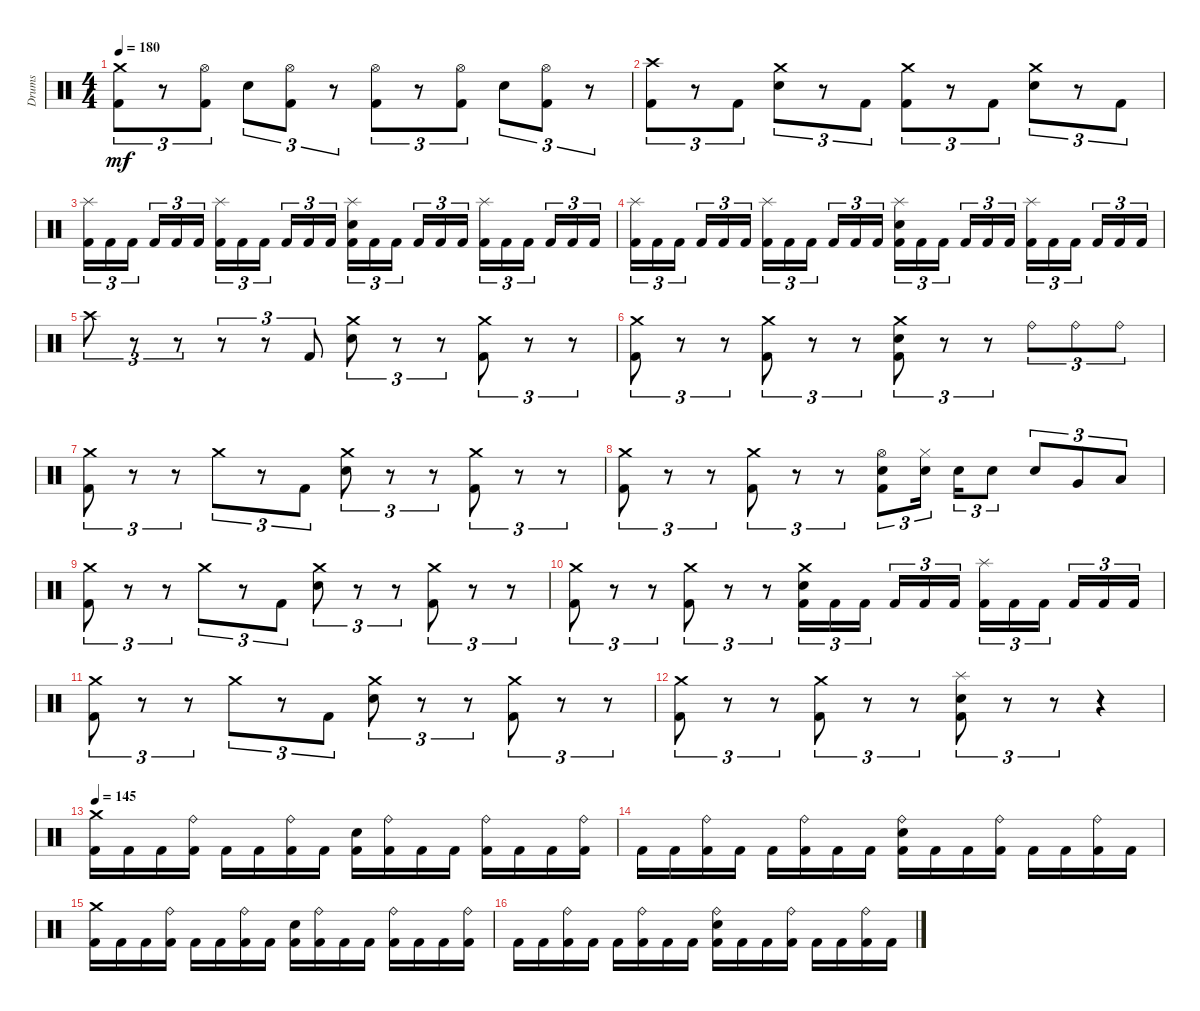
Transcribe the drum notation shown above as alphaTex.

\track ("Drums" "Drums") {instrument percussion}
\staff {score}
\articulation defaults
\ts (4 4)
\tempo 180
\clef neutral
\ks c
("Crash medium (hit)" "Kick (hit) 2").8{tu (3 2) dy mf} r.8{tu (3 2)} ("Hi-Hat (open)" "Kick (hit) 2").8{tu (3 2)} "Electric Snare (hit)".8{tu (3 2)} ("Hi-Hat (open)" "Kick (hit) 2").8{tu (3 2)} r.8{tu (3 2)} ("Hi-Hat (open)" "Kick (hit) 2").8{tu (3 2)} r.8{tu (3 2)} ("Hi-Hat (open)" "Kick (hit) 2").8{tu (3 2)} "Electric Snare (hit)".8{tu (3 2)} ("Hi-Hat (open)" "Kick (hit) 2").8{tu (3 2)} r.8{tu (3 2)} |
("Crash high (hit)" "Kick (hit) 2").8{tu (3 2)} r.8{tu (3 2)} "Kick (hit) 2".8{tu (3 2)} ("Crash medium (hit)" "Electric Snare (hit)").8{tu (3 2)} r.8{tu (3 2)} "Kick (hit) 2".8{tu (3 2)} ("Crash medium (hit)" "Kick (hit) 2").8{tu (3 2)} r.8{tu (3 2)} "Kick (hit) 2".8{tu (3 2)} ("Crash medium (hit)" "Electric Snare (hit)").8{tu (3 2)} r.8{tu (3 2)} "Kick (hit) 2".8{tu (3 2)} |
("Splash (hit)" "Kick (hit) 2").16{tu (3 2)} "Kick (hit) 2".16{tu (3 2)} "Kick (hit) 2".16{tu (3 2) beam splitsecondary} "Kick (hit) 2".16{tu (3 2)} "Kick (hit) 2".16{tu (3 2)} "Kick (hit) 2".16{tu (3 2)} ("Splash (hit)" "Kick (hit) 2").16{tu (3 2)} "Kick (hit) 2".16{tu (3 2)} "Kick (hit) 2".16{tu (3 2) beam splitsecondary} "Kick (hit) 2".16{tu (3 2)} "Kick (hit) 2".16{tu (3 2)} "Kick (hit) 2".16{tu (3 2)} ("Splash (hit)" "Electric Snare (hit)" "Kick (hit) 2").16{tu (3 2)} "Kick (hit) 2".16{tu (3 2)} "Kick (hit) 2".16{tu (3 2) beam splitsecondary} "Kick (hit) 2".16{tu (3 2)} "Kick (hit) 2".16{tu (3 2)} "Kick (hit) 2".16{tu (3 2)} ("Splash (hit)" "Kick (hit) 2").16{tu (3 2)} "Kick (hit) 2".16{tu (3 2)} "Kick (hit) 2".16{tu (3 2) beam splitsecondary} "Kick (hit) 2".16{tu (3 2)} "Kick (hit) 2".16{tu (3 2)} "Kick (hit) 2".16{tu (3 2)} |
("Splash (hit)" "Kick (hit) 2").16{tu (3 2)} "Kick (hit) 2".16{tu (3 2)} "Kick (hit) 2".16{tu (3 2) beam splitsecondary} "Kick (hit) 2".16{tu (3 2)} "Kick (hit) 2".16{tu (3 2)} "Kick (hit) 2".16{tu (3 2)} ("Splash (hit)" "Kick (hit) 2").16{tu (3 2)} "Kick (hit) 2".16{tu (3 2)} "Kick (hit) 2".16{tu (3 2) beam splitsecondary} "Kick (hit) 2".16{tu (3 2)} "Kick (hit) 2".16{tu (3 2)} "Kick (hit) 2".16{tu (3 2)} ("Splash (hit)" "Electric Snare (hit)" "Kick (hit) 2").16{tu (3 2)} "Kick (hit) 2".16{tu (3 2)} "Kick (hit) 2".16{tu (3 2) beam splitsecondary} "Kick (hit) 2".16{tu (3 2)} "Kick (hit) 2".16{tu (3 2)} "Kick (hit) 2".16{tu (3 2)} ("Splash (hit)" "Kick (hit) 2").16{tu (3 2)} "Kick (hit) 2".16{tu (3 2)} "Kick (hit) 2".16{tu (3 2) beam splitsecondary} "Kick (hit) 2".16{tu (3 2)} "Kick (hit) 2".16{tu (3 2)} "Kick (hit) 2".16{tu (3 2)} |
"Crash high (hit)".8{tu (3 2)} r.8{tu (3 2)} r.8{tu (3 2)} r.8{tu (3 2)} r.8{tu (3 2)} "Kick (hit) 2".8{tu (3 2)} ("Crash medium (hit)" "Electric Snare (hit)").8{tu (3 2)} r.8{tu (3 2)} r.8{tu (3 2)} ("Crash medium (hit)" "Kick (hit) 2").8{tu (3 2)} r.8{tu (3 2)} r.8{tu (3 2)} |
("Crash medium (hit)" "Kick (hit) 2").8{tu (3 2)} r.8{tu (3 2)} r.8{tu (3 2)} ("Crash medium (hit)" "Kick (hit) 2").8{tu (3 2)} r.8{tu (3 2)} r.8{tu (3 2)} ("Crash medium (hit)" "Electric Snare (hit)" "Kick (hit) 2").8{tu (3 2)} r.8{tu (3 2)} r.8{tu (3 2)} "Ride (bell)".8{tu (3 2)} "Ride (bell)".8{tu (3 2)} "Ride (bell)".8{tu (3 2)} |
("Crash medium (hit)" "Kick (hit) 2").8{tu (3 2)} r.8{tu (3 2)} r.8{tu (3 2)} "Crash medium (hit)".8{tu (3 2)} r.8{tu (3 2)} "Kick (hit) 2".8{tu (3 2)} ("Crash medium (hit)" "Electric Snare (hit)").8{tu (3 2)} r.8{tu (3 2)} r.8{tu (3 2)} ("Crash medium (hit)" "Kick (hit) 2").8{tu (3 2)} r.8{tu (3 2)} r.8{tu (3 2)} |
("Crash medium (hit)" "Kick (hit) 2").8{tu (3 2)} r.8{tu (3 2)} r.8{tu (3 2)} ("Crash medium (hit)" "Kick (hit) 2").8{tu (3 2)} r.8{tu (3 2)} r.8{tu (3 2)} ("Hi-Hat (open)" "Electric Snare (hit)" "Kick (hit) 2").8{tu (3 2)} ("Hi-Hat (closed)" "Electric Snare (hit)").16{tu (3 2) beam splitsecondary} "Electric Snare (hit)".16{tu (3 2)} "Electric Snare (hit)".8{tu (3 2)} "Electric Snare (hit)".8{tu (3 2)} "Very Low Tom (hit)".8{tu (3 2)} "Low Floor Tom (hit)".8{tu (3 2)} |
("Crash medium (hit)" "Kick (hit) 2").8{tu (3 2)} r.8{tu (3 2)} r.8{tu (3 2)} "Crash medium (hit)".8{tu (3 2)} r.8{tu (3 2)} "Kick (hit) 2".8{tu (3 2)} ("Crash medium (hit)" "Electric Snare (hit)").8{tu (3 2)} r.8{tu (3 2)} r.8{tu (3 2)} ("Crash medium (hit)" "Kick (hit) 2").8{tu (3 2)} r.8{tu (3 2)} r.8{tu (3 2)} |
("Crash medium (hit)" "Kick (hit) 2").8{tu (3 2)} r.8{tu (3 2)} r.8{tu (3 2)} ("Crash medium (hit)" "Kick (hit) 2").8{tu (3 2)} r.8{tu (3 2)} r.8{tu (3 2)} ("Crash medium (hit)" "Electric Snare (hit)" "Kick (hit) 2").16{tu (3 2)} "Kick (hit) 2".16{tu (3 2)} "Kick (hit) 2".16{tu (3 2) beam splitsecondary} "Kick (hit) 2".16{tu (3 2)} "Kick (hit) 2".16{tu (3 2)} "Kick (hit) 2".16{tu (3 2)} ("Splash (hit)" "Kick (hit) 2").16{tu (3 2)} "Kick (hit) 2".16{tu (3 2)} "Kick (hit) 2".16{tu (3 2) beam splitsecondary} "Kick (hit) 2".16{tu (3 2)} "Kick (hit) 2".16{tu (3 2)} "Kick (hit) 2".16{tu (3 2)} |
("Crash medium (hit)" "Kick (hit) 2").8{tu (3 2)} r.8{tu (3 2)} r.8{tu (3 2)} "Crash medium (hit)".8{tu (3 2)} r.8{tu (3 2)} "Kick (hit) 2".8{tu (3 2)} ("Crash medium (hit)" "Electric Snare (hit)").8{tu (3 2)} r.8{tu (3 2)} r.8{tu (3 2)} ("Crash medium (hit)" "Kick (hit) 2").8{tu (3 2)} r.8{tu (3 2)} r.8{tu (3 2)} |
("Crash medium (hit)" "Kick (hit) 2").8{tu (3 2)} r.8{tu (3 2)} r.8{tu (3 2)} ("Crash medium (hit)" "Kick (hit) 2").8{tu (3 2)} r.8{tu (3 2)} r.8{tu (3 2)} ("Splash (hit)" "Electric Snare (hit)" "Kick (hit) 2").8{tu (3 2)} r.8{tu (3 2)} r.8{tu (3 2)} r.4 |
\tempo 145
("Crash medium (hit)" "Kick (hit) 2").16 "Kick (hit) 2".16 "Kick (hit) 2".16 ("Ride (bell)" "Kick (hit) 2").16 "Kick (hit) 2".16 "Kick (hit) 2".16 ("Ride (bell)" "Kick (hit) 2").16 "Kick (hit) 2".16 ("Electric Snare (hit)" "Kick (hit) 2").16 ("Ride (bell)" "Kick (hit) 2").16 "Kick (hit) 2".16 "Kick (hit) 2".16 ("Ride (bell)" "Kick (hit) 2").16 "Kick (hit) 2".16 "Kick (hit) 2".16 ("Ride (bell)" "Kick (hit) 2").16 |
"Kick (hit) 2".16 "Kick (hit) 2".16 ("Ride (bell)" "Kick (hit) 2").16 "Kick (hit) 2".16 "Kick (hit) 2".16 ("Ride (bell)" "Kick (hit) 2").16 "Kick (hit) 2".16 "Kick (hit) 2".16 ("Ride (bell)" "Electric Snare (hit)" "Kick (hit) 2").16 "Kick (hit) 2".16 "Kick (hit) 2".16 ("Ride (bell)" "Kick (hit) 2").16 "Kick (hit) 2".16 "Kick (hit) 2".16 ("Ride (bell)" "Kick (hit) 2").16 "Kick (hit) 2".16 |
("Crash medium (hit)" "Kick (hit) 2").16 "Kick (hit) 2".16 "Kick (hit) 2".16 ("Ride (bell)" "Kick (hit) 2").16 "Kick (hit) 2".16 "Kick (hit) 2".16 ("Ride (bell)" "Kick (hit) 2").16 "Kick (hit) 2".16 ("Electric Snare (hit)" "Kick (hit) 2").16 ("Ride (bell)" "Kick (hit) 2").16 "Kick (hit) 2".16 "Kick (hit) 2".16 ("Ride (bell)" "Kick (hit) 2").16 "Kick (hit) 2".16 "Kick (hit) 2".16 ("Ride (bell)" "Kick (hit) 2").16 |
"Kick (hit) 2".16 "Kick (hit) 2".16 ("Ride (bell)" "Kick (hit) 2").16 "Kick (hit) 2".16 "Kick (hit) 2".16 ("Ride (bell)" "Kick (hit) 2").16 "Kick (hit) 2".16 "Kick (hit) 2".16 ("Ride (bell)" "Electric Snare (hit)" "Kick (hit) 2").16 "Kick (hit) 2".16 "Kick (hit) 2".16 ("Ride (bell)" "Kick (hit) 2").16 "Kick (hit) 2".16 "Kick (hit) 2".16 ("Ride (bell)" "Kick (hit) 2").16 "Kick (hit) 2".16
